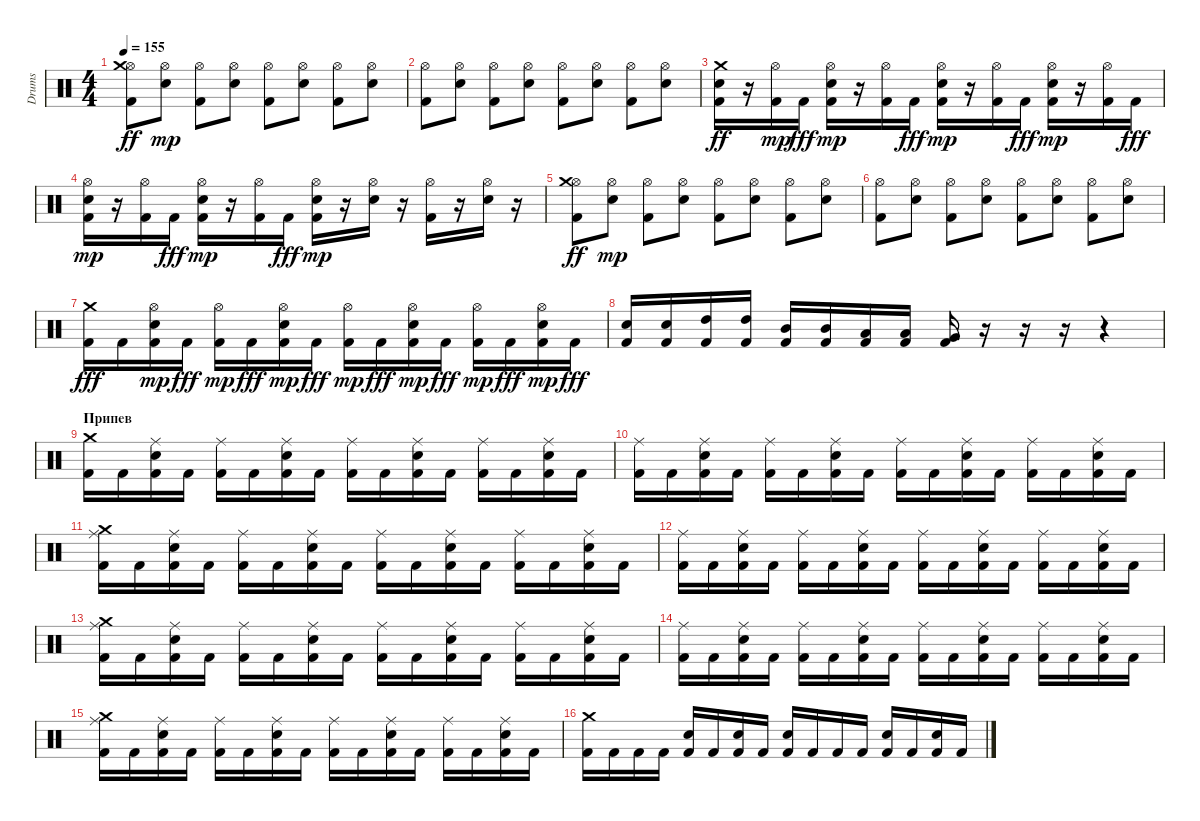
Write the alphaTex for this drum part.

\track ("Drums" "Drums") {instrument percussion}
\staff {score}
\articulation defaults
\ts (4 4)
\tempo 155
\clef neutral
\ks c
("Kick (hit) 2" "Hi-Hat (open)" "Crash medium (hit)").8{dy ff} ("Hi-Hat (open)" "Snare (hit) 2").8{dy mp} ("Kick (hit) 2" "Hi-Hat (open)").8 ("Hi-Hat (open)" "Snare (hit) 2").8 ("Kick (hit) 2" "Hi-Hat (open)").8 ("Hi-Hat (open)" "Snare (hit) 2").8 ("Kick (hit) 2" "Hi-Hat (open)").8 ("Hi-Hat (open)" "Snare (hit) 2").8 |
("Kick (hit) 2" "Hi-Hat (open)").8 ("Hi-Hat (open)" "Snare (hit) 2").8 ("Kick (hit) 2" "Hi-Hat (open)").8 ("Hi-Hat (open)" "Snare (hit) 2").8 ("Kick (hit) 2" "Hi-Hat (open)").8 ("Hi-Hat (open)" "Snare (hit) 2").8 ("Kick (hit) 2" "Hi-Hat (open)").8 ("Hi-Hat (open)" "Snare (hit) 2").8 |
("Kick (hit) 2" "Snare (hit) 2" "Crash medium (hit)").16{dy ff} r.16 ("Kick (hit) 2" "Hi-Hat (open)").16{dy mp} "Kick (hit) 2".16{dy fff} ("Kick (hit) 2" "Hi-Hat (open)" "Snare (hit) 2").16{dy mp} r.16 ("Kick (hit) 2" "Hi-Hat (open)").16 "Kick (hit) 2".16{dy fff} ("Kick (hit) 2" "Hi-Hat (open)" "Snare (hit) 2").16{dy mp} r.16 ("Kick (hit) 2" "Hi-Hat (open)").16 "Kick (hit) 2".16{dy fff} ("Kick (hit) 2" "Hi-Hat (open)" "Snare (hit) 2").16{dy mp} r.16 ("Kick (hit) 2" "Hi-Hat (open)").16 "Kick (hit) 2".16{dy fff} |
("Kick (hit) 2" "Hi-Hat (open)" "Snare (hit) 2").16{dy mp} r.16 ("Kick (hit) 2" "Hi-Hat (open)").16 "Kick (hit) 2".16{dy fff} ("Kick (hit) 2" "Hi-Hat (open)" "Snare (hit) 2").16{dy mp} r.16 ("Kick (hit) 2" "Hi-Hat (open)").16 "Kick (hit) 2".16{dy fff} ("Kick (hit) 2" "Hi-Hat (open)" "Snare (hit) 2").16{dy mp} r.16 ("Hi-Hat (open)" "Snare (hit) 2").16 r.16 ("Kick (hit) 2" "Hi-Hat (open)").16 r.16 ("Hi-Hat (open)" "Snare (hit) 2").16 r.16 |
("Kick (hit) 2" "Hi-Hat (open)" "Crash medium (hit)").8{dy ff} ("Hi-Hat (open)" "Snare (hit) 2").8{dy mp} ("Kick (hit) 2" "Hi-Hat (open)").8 ("Hi-Hat (open)" "Snare (hit) 2").8 ("Kick (hit) 2" "Hi-Hat (open)").8 ("Hi-Hat (open)" "Snare (hit) 2").8 ("Kick (hit) 2" "Hi-Hat (open)").8 ("Hi-Hat (open)" "Snare (hit) 2").8 |
("Kick (hit) 2" "Hi-Hat (open)").8 ("Hi-Hat (open)" "Snare (hit) 2").8 ("Kick (hit) 2" "Hi-Hat (open)").8 ("Hi-Hat (open)" "Snare (hit) 2").8 ("Kick (hit) 2" "Hi-Hat (open)").8 ("Hi-Hat (open)" "Snare (hit) 2").8 ("Kick (hit) 2" "Hi-Hat (open)").8 ("Hi-Hat (open)" "Snare (hit) 2").8 |
("Kick (hit) 2" "Crash medium (hit)").16{dy fff} "Kick (hit) 2".16 ("Kick (hit) 2" "Hi-Hat (open)" "Snare (hit) 2").16{dy mp} "Kick (hit) 2".16{dy fff} ("Kick (hit) 2" "Hi-Hat (open)").16{dy mp} "Kick (hit) 2".16{dy fff} ("Kick (hit) 2" "Hi-Hat (open)" "Snare (hit) 2").16{dy mp} "Kick (hit) 2".16{dy fff} ("Kick (hit) 2" "Hi-Hat (open)").16{dy mp} "Kick (hit) 2".16{dy fff} ("Kick (hit) 2" "Hi-Hat (open)" "Snare (hit) 2").16{dy mp} "Kick (hit) 2".16{dy fff} ("Kick (hit) 2" "Hi-Hat (open)").16{dy mp} "Kick (hit) 2".16{dy fff} ("Kick (hit) 2" "Hi-Hat (open)" "Snare (hit) 2").16{dy mp} "Kick (hit) 2".16{dy fff} |
("Kick (hit) 2" "Snare (hit) 2").16 ("Kick (hit) 2" "Snare (hit) 2").16 ("Kick (hit) 2" "High Tom (hit)").16 ("Kick (hit) 2" "High Tom (hit)").16 ("Kick (hit) 2" "Mid Tom (hit)").16 ("Kick (hit) 2" "Mid Tom (hit)").16 ("Kick (hit) 2" "Low Tom (hit)").16 ("Kick (hit) 2" "Low Tom (hit)").16 ("Kick (hit) 2" "Very Low Tom (hit)").16 r.16 r.16 r.16 r.4 |
\section ("" "Припев")
("Kick (hit) 2" "Crash medium (hit)").16 "Kick (hit) 2".16 ("Kick (hit) 2" "Ride (middle)" "Snare (hit) 2").16 "Kick (hit) 2".16 ("Kick (hit) 2" "Ride (middle)").16 "Kick (hit) 2".16 ("Kick (hit) 2" "Ride (middle)" "Snare (hit) 2").16 "Kick (hit) 2".16 ("Kick (hit) 2" "Ride (middle)").16 "Kick (hit) 2".16 ("Kick (hit) 2" "Ride (middle)" "Snare (hit) 2").16 "Kick (hit) 2".16 ("Kick (hit) 2" "Ride (middle)").16 "Kick (hit) 2".16 ("Kick (hit) 2" "Ride (middle)" "Snare (hit) 2").16 "Kick (hit) 2".16 |
("Kick (hit) 2" "Ride (middle)").16 "Kick (hit) 2".16 ("Kick (hit) 2" "Ride (middle)" "Snare (hit) 2").16 "Kick (hit) 2".16 ("Kick (hit) 2" "Ride (middle)").16 "Kick (hit) 2".16 ("Kick (hit) 2" "Ride (middle)" "Snare (hit) 2").16 "Kick (hit) 2".16 ("Kick (hit) 2" "Ride (middle)").16 "Kick (hit) 2".16 ("Kick (hit) 2" "Ride (middle)" "Snare (hit) 2").16 "Kick (hit) 2".16 ("Kick (hit) 2" "Ride (middle)").16 "Kick (hit) 2".16 ("Kick (hit) 2" "Ride (middle)" "Snare (hit) 2").16 "Kick (hit) 2".16 |
("Kick (hit) 2" "Ride (middle)" "Crash medium (hit)").16 "Kick (hit) 2".16 ("Kick (hit) 2" "Ride (middle)" "Snare (hit) 2").16 "Kick (hit) 2".16 ("Kick (hit) 2" "Ride (middle)").16 "Kick (hit) 2".16 ("Kick (hit) 2" "Ride (middle)" "Snare (hit) 2").16 "Kick (hit) 2".16 ("Kick (hit) 2" "Ride (middle)").16 "Kick (hit) 2".16 ("Kick (hit) 2" "Ride (middle)" "Snare (hit) 2").16 "Kick (hit) 2".16 ("Kick (hit) 2" "Ride (middle)").16 "Kick (hit) 2".16 ("Kick (hit) 2" "Ride (middle)" "Snare (hit) 2").16 "Kick (hit) 2".16 |
("Kick (hit) 2" "Ride (middle)").16 "Kick (hit) 2".16 ("Kick (hit) 2" "Ride (middle)" "Snare (hit) 2").16 "Kick (hit) 2".16 ("Kick (hit) 2" "Ride (middle)").16 "Kick (hit) 2".16 ("Kick (hit) 2" "Ride (middle)" "Snare (hit) 2").16 "Kick (hit) 2".16 ("Kick (hit) 2" "Ride (middle)").16 "Kick (hit) 2".16 ("Kick (hit) 2" "Ride (middle)" "Snare (hit) 2").16 "Kick (hit) 2".16 ("Kick (hit) 2" "Ride (middle)").16 "Kick (hit) 2".16 ("Kick (hit) 2" "Ride (middle)" "Snare (hit) 2").16 "Kick (hit) 2".16 |
("Kick (hit) 2" "Ride (middle)" "Crash medium (hit)").16 "Kick (hit) 2".16 ("Kick (hit) 2" "Ride (middle)" "Snare (hit) 2").16 "Kick (hit) 2".16 ("Kick (hit) 2" "Ride (middle)").16 "Kick (hit) 2".16 ("Kick (hit) 2" "Ride (middle)" "Snare (hit) 2").16 "Kick (hit) 2".16 ("Kick (hit) 2" "Ride (middle)").16 "Kick (hit) 2".16 ("Kick (hit) 2" "Ride (middle)" "Snare (hit) 2").16 "Kick (hit) 2".16 ("Kick (hit) 2" "Ride (middle)").16 "Kick (hit) 2".16 ("Kick (hit) 2" "Ride (middle)" "Snare (hit) 2").16 "Kick (hit) 2".16 |
("Kick (hit) 2" "Ride (middle)").16 "Kick (hit) 2".16 ("Kick (hit) 2" "Ride (middle)" "Snare (hit) 2").16 "Kick (hit) 2".16 ("Kick (hit) 2" "Ride (middle)").16 "Kick (hit) 2".16 ("Kick (hit) 2" "Ride (middle)" "Snare (hit) 2").16 "Kick (hit) 2".16 ("Kick (hit) 2" "Ride (middle)").16 "Kick (hit) 2".16 ("Kick (hit) 2" "Ride (middle)" "Snare (hit) 2").16 "Kick (hit) 2".16 ("Kick (hit) 2" "Ride (middle)").16 "Kick (hit) 2".16 ("Kick (hit) 2" "Ride (middle)" "Snare (hit) 2").16 "Kick (hit) 2".16 |
("Kick (hit) 2" "Ride (middle)" "Crash medium (hit)").16 "Kick (hit) 2".16 ("Kick (hit) 2" "Ride (middle)" "Snare (hit) 2").16 "Kick (hit) 2".16 ("Kick (hit) 2" "Ride (middle)").16 "Kick (hit) 2".16 ("Kick (hit) 2" "Ride (middle)" "Snare (hit) 2").16 "Kick (hit) 2".16 ("Kick (hit) 2" "Ride (middle)").16 "Kick (hit) 2".16 ("Kick (hit) 2" "Ride (middle)" "Snare (hit) 2").16 "Kick (hit) 2".16 ("Kick (hit) 2" "Ride (middle)").16 "Kick (hit) 2".16 ("Kick (hit) 2" "Ride (middle)" "Snare (hit) 2").16 "Kick (hit) 2".16 |
("Kick (hit) 2" "Crash medium (hit)").16 "Kick (hit) 2".16 "Kick (hit) 2".16 "Kick (hit) 2".16 ("Kick (hit) 2" "Snare (hit) 2").16 "Kick (hit) 2".16 ("Kick (hit) 2" "Snare (hit) 2").16 "Kick (hit) 2".16 ("Kick (hit) 2" "Snare (hit) 2").16 "Kick (hit) 2".16 "Kick (hit) 2".16 "Kick (hit) 2".16 ("Kick (hit) 2" "Snare (hit) 2").16 "Kick (hit) 2".16 ("Kick (hit) 2" "Snare (hit) 2").16 "Kick (hit) 2".16
